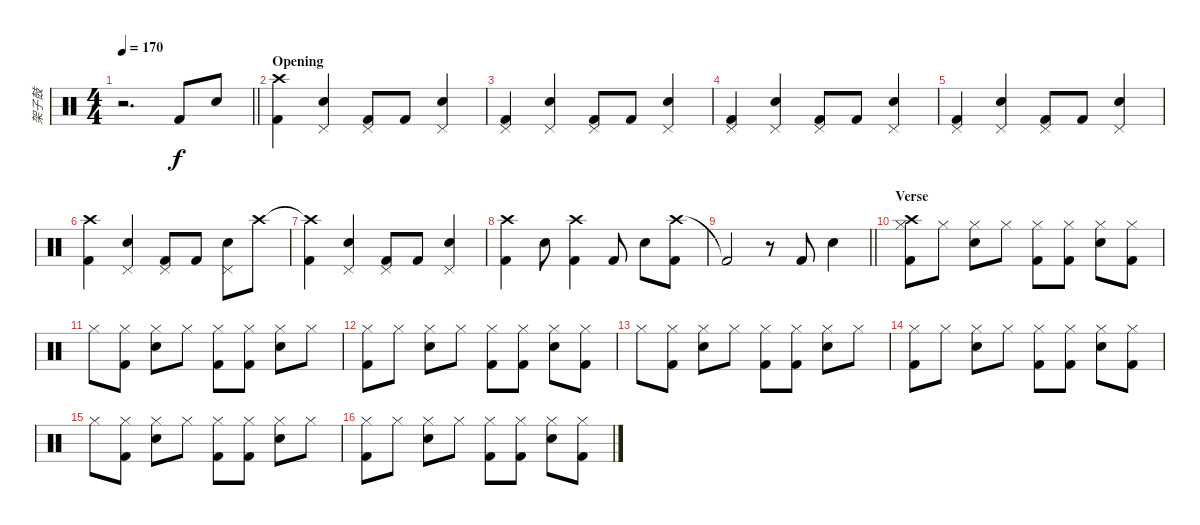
\track ("架子鼓" "架子鼓") {instrument percussion}
\staff {score}
\articulation defaults
\ts (4 4)
\tempo 170
\clef neutral
\barLineRight lightlight
\ks c
r.2{d dy f} "Kick (hit) 2".8 "Snare (hit) 2".8 |
\section ("" "Opening")
("Crash high (hit)" "Kick (hit) 2").4 ("Pedal Hi-Hat (hit)" "Snare (hit) 2").4 ("Pedal Hi-Hat (hit)" "Kick (hit) 2").8 "Kick (hit) 2".8 ("Pedal Hi-Hat (hit)" "Snare (hit) 2").4 |
("Pedal Hi-Hat (hit)" "Kick (hit) 2").4 ("Pedal Hi-Hat (hit)" "Snare (hit) 2").4 ("Pedal Hi-Hat (hit)" "Kick (hit) 2").8 "Kick (hit) 2".8 ("Pedal Hi-Hat (hit)" "Snare (hit) 2").4 |
("Pedal Hi-Hat (hit)" "Kick (hit) 2").4 ("Pedal Hi-Hat (hit)" "Snare (hit) 2").4 ("Pedal Hi-Hat (hit)" "Kick (hit) 2").8 "Kick (hit) 2".8 ("Pedal Hi-Hat (hit)" "Snare (hit) 2").4 |
("Pedal Hi-Hat (hit)" "Kick (hit) 2").4 ("Pedal Hi-Hat (hit)" "Snare (hit) 2").4 ("Pedal Hi-Hat (hit)" "Kick (hit) 2").8 "Kick (hit) 2".8 ("Pedal Hi-Hat (hit)" "Snare (hit) 2").4 |
("Crash high (hit)" "Kick (hit) 2").4 ("Pedal Hi-Hat (hit)" "Snare (hit) 2").4 ("Pedal Hi-Hat (hit)" "Kick (hit) 2").8 "Kick (hit) 2".8 ("Pedal Hi-Hat (hit)" "Snare (hit) 2").8 "Crash high (hit)".8 |
("Crash high (hit)"{t} "Kick (hit) 2").4 ("Pedal Hi-Hat (hit)" "Snare (hit) 2").4 ("Pedal Hi-Hat (hit)" "Kick (hit) 2").8 "Kick (hit) 2".8 ("Pedal Hi-Hat (hit)" "Snare (hit) 2").4 |
("Crash high (hit)" "Kick (hit) 2").4 "Snare (hit) 2".8 ("Crash high (hit)" "Kick (hit) 2").4 "Kick (hit) 2".8 "Snare (hit) 2".8 ("Crash high (hit)" "Kick (hit) 2").8 |
\barLineRight lightlight "Kick (hit) 2"{t}.2
r.8 "Kick (hit) 2".8 "Snare (hit) 2".4 |
\section ("" "Verse")
("Hi-Hat (closed)" "Crash high (hit)" "Kick (hit) 2").8 "Hi-Hat (closed)".8 ("Hi-Hat (closed)" "Snare (hit) 2").8 "Hi-Hat (closed)".8 ("Hi-Hat (closed)" "Kick (hit) 2").8 ("Hi-Hat (closed)" "Kick (hit) 2").8 ("Hi-Hat (closed)" "Snare (hit) 2").8 ("Hi-Hat (closed)" "Kick (hit) 2").8 |
"Hi-Hat (closed)".8 ("Hi-Hat (closed)" "Kick (hit) 2").8 ("Hi-Hat (closed)" "Snare (hit) 2").8 "Hi-Hat (closed)".8 ("Hi-Hat (closed)" "Kick (hit) 2").8 ("Hi-Hat (closed)" "Kick (hit) 2").8 ("Hi-Hat (closed)" "Snare (hit) 2").8 "Hi-Hat (closed)".8 |
("Hi-Hat (closed)" "Kick (hit) 2").8 "Hi-Hat (closed)".8 ("Hi-Hat (closed)" "Snare (hit) 2").8 "Hi-Hat (closed)".8 ("Hi-Hat (closed)" "Kick (hit) 2").8 ("Hi-Hat (closed)" "Kick (hit) 2").8 ("Hi-Hat (closed)" "Snare (hit) 2").8 ("Hi-Hat (closed)" "Kick (hit) 2").8 |
"Hi-Hat (closed)".8 ("Hi-Hat (closed)" "Kick (hit) 2").8 ("Hi-Hat (closed)" "Snare (hit) 2").8 "Hi-Hat (closed)".8 ("Hi-Hat (closed)" "Kick (hit) 2").8 ("Hi-Hat (closed)" "Kick (hit) 2").8 ("Hi-Hat (closed)" "Snare (hit) 2").8 "Hi-Hat (closed)".8 |
("Hi-Hat (closed)" "Kick (hit) 2").8 "Hi-Hat (closed)".8 ("Hi-Hat (closed)" "Snare (hit) 2").8 "Hi-Hat (closed)".8 ("Hi-Hat (closed)" "Kick (hit) 2").8 ("Hi-Hat (closed)" "Kick (hit) 2").8 ("Hi-Hat (closed)" "Snare (hit) 2").8 ("Hi-Hat (closed)" "Kick (hit) 2").8 |
"Hi-Hat (closed)".8 ("Hi-Hat (closed)" "Kick (hit) 2").8 ("Hi-Hat (closed)" "Snare (hit) 2").8 "Hi-Hat (closed)".8 ("Hi-Hat (closed)" "Kick (hit) 2").8 ("Hi-Hat (closed)" "Kick (hit) 2").8 ("Hi-Hat (closed)" "Snare (hit) 2").8 "Hi-Hat (closed)".8 |
("Hi-Hat (closed)" "Kick (hit) 2").8 "Hi-Hat (closed)".8 ("Hi-Hat (closed)" "Snare (hit) 2").8 "Hi-Hat (closed)".8 ("Hi-Hat (closed)" "Kick (hit) 2").8 ("Hi-Hat (closed)" "Kick (hit) 2").8 ("Hi-Hat (closed)" "Snare (hit) 2").8 ("Hi-Hat (closed)" "Kick (hit) 2").8
